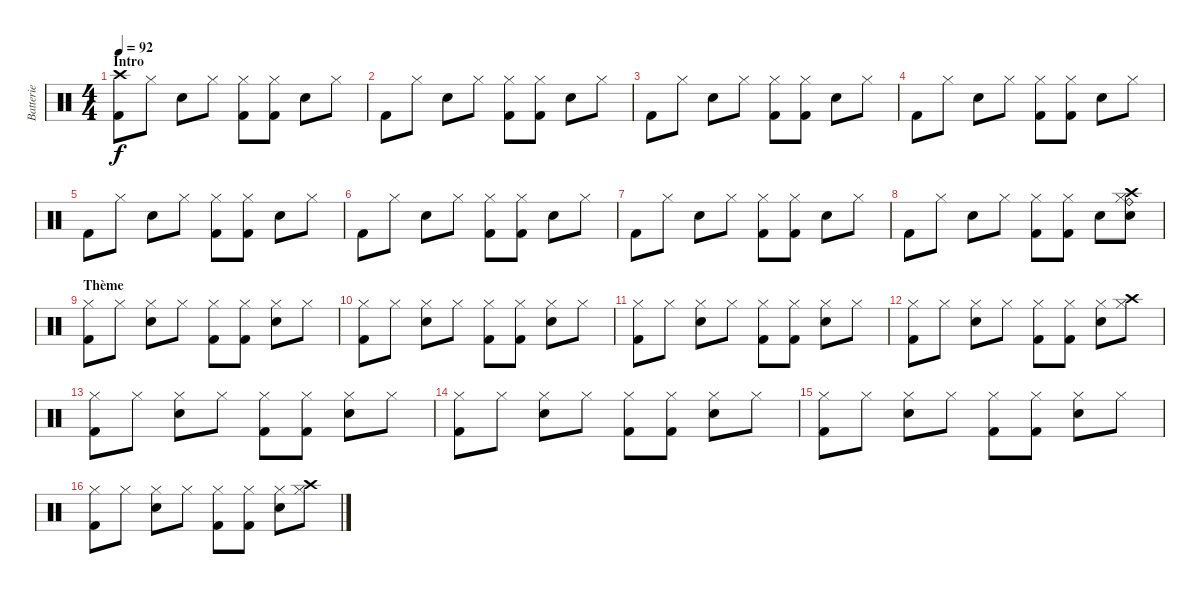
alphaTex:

\track ("Batterie" "Batterie") {instrument percussion}
\staff {score}
\articulation defaults
\ts (4 4)
\section ("" "Intro")
\tempo 92
\clef neutral
\ks c
("Crash high (hit)" "Kick (hit) 2").8{dy f} "Hi-Hat (closed)".8 "Electric Snare (hit)".8 "Hi-Hat (closed)".8 ("Hi-Hat (closed)" "Kick (hit) 2").8 ("Hi-Hat (closed)" "Kick (hit) 2").8 "Electric Snare (hit)".8 "Hi-Hat (closed)".8 |
"Kick (hit) 2".8 "Hi-Hat (closed)".8 "Electric Snare (hit)".8 "Hi-Hat (closed)".8 ("Hi-Hat (closed)" "Kick (hit) 2").8 ("Hi-Hat (closed)" "Kick (hit) 2").8 "Electric Snare (hit)".8 "Hi-Hat (closed)".8 |
"Kick (hit) 2".8 "Hi-Hat (closed)".8 "Electric Snare (hit)".8 "Hi-Hat (closed)".8 ("Hi-Hat (closed)" "Kick (hit) 2").8 ("Hi-Hat (closed)" "Kick (hit) 2").8 "Electric Snare (hit)".8 "Hi-Hat (closed)".8 |
"Kick (hit) 2".8 "Hi-Hat (closed)".8 "Electric Snare (hit)".8 "Hi-Hat (closed)".8 ("Hi-Hat (closed)" "Kick (hit) 2").8 ("Hi-Hat (closed)" "Kick (hit) 2").8 "Electric Snare (hit)".8 "Hi-Hat (closed)".8 |
"Kick (hit) 2".8 "Hi-Hat (closed)".8 "Electric Snare (hit)".8 "Hi-Hat (closed)".8 ("Hi-Hat (closed)" "Kick (hit) 2").8 ("Hi-Hat (closed)" "Kick (hit) 2").8 "Electric Snare (hit)".8 "Hi-Hat (closed)".8 |
"Kick (hit) 2".8 "Hi-Hat (closed)".8 "Electric Snare (hit)".8 "Hi-Hat (closed)".8 ("Hi-Hat (closed)" "Kick (hit) 2").8 ("Hi-Hat (closed)" "Kick (hit) 2").8 "Electric Snare (hit)".8 "Hi-Hat (closed)".8 |
"Kick (hit) 2".8 "Hi-Hat (closed)".8 "Electric Snare (hit)".8 "Hi-Hat (closed)".8 ("Hi-Hat (closed)" "Kick (hit) 2").8 ("Hi-Hat (closed)" "Kick (hit) 2").8 "Electric Snare (hit)".8 "Hi-Hat (closed)".8 |
"Kick (hit) 2".8 "Hi-Hat (closed)".8 "Electric Snare (hit)".8 "Hi-Hat (closed)".8 ("Hi-Hat (closed)" "Kick (hit) 2").8 ("Hi-Hat (closed)" "Kick (hit) 2").8 "Electric Snare (hit)".8 ("Crash high (hit)" "Hi-Hat (closed)" "Ride (bell)" "Electric Snare (hit)").8 |
\section ("" "Thème")
("Hi-Hat (closed)" "Kick (hit) 2").8 "Hi-Hat (closed)".8 ("Hi-Hat (closed)" "Electric Snare (hit)").8 "Hi-Hat (closed)".8 ("Hi-Hat (closed)" "Kick (hit) 2").8 ("Hi-Hat (closed)" "Kick (hit) 2").8 ("Hi-Hat (closed)" "Electric Snare (hit)").8 "Hi-Hat (closed)".8 |
("Hi-Hat (closed)" "Kick (hit) 2").8 "Hi-Hat (closed)".8 ("Hi-Hat (closed)" "Electric Snare (hit)").8 "Hi-Hat (closed)".8 ("Hi-Hat (closed)" "Kick (hit) 2").8 ("Hi-Hat (closed)" "Kick (hit) 2").8 ("Hi-Hat (closed)" "Electric Snare (hit)").8 "Hi-Hat (closed)".8 |
("Hi-Hat (closed)" "Kick (hit) 2").8 "Hi-Hat (closed)".8 ("Hi-Hat (closed)" "Electric Snare (hit)").8 "Hi-Hat (closed)".8 ("Hi-Hat (closed)" "Kick (hit) 2").8 ("Hi-Hat (closed)" "Kick (hit) 2").8 ("Hi-Hat (closed)" "Electric Snare (hit)").8 "Hi-Hat (closed)".8 |
("Hi-Hat (closed)" "Kick (hit) 2").8 "Hi-Hat (closed)".8 ("Hi-Hat (closed)" "Electric Snare (hit)").8 "Hi-Hat (closed)".8 ("Hi-Hat (closed)" "Kick (hit) 2").8 ("Hi-Hat (closed)" "Kick (hit) 2").8 ("Hi-Hat (closed)" "Electric Snare (hit)").8 ("Crash high (hit)" "Hi-Hat (closed)").8 |
("Hi-Hat (closed)" "Kick (hit) 2").8 "Hi-Hat (closed)".8 ("Hi-Hat (closed)" "Electric Snare (hit)").8 "Hi-Hat (closed)".8 ("Hi-Hat (closed)" "Kick (hit) 2").8 ("Hi-Hat (closed)" "Kick (hit) 2").8 ("Hi-Hat (closed)" "Electric Snare (hit)").8 "Hi-Hat (closed)".8 |
("Hi-Hat (closed)" "Kick (hit) 2").8 "Hi-Hat (closed)".8 ("Hi-Hat (closed)" "Electric Snare (hit)").8 "Hi-Hat (closed)".8 ("Hi-Hat (closed)" "Kick (hit) 2").8 ("Hi-Hat (closed)" "Kick (hit) 2").8 ("Hi-Hat (closed)" "Electric Snare (hit)").8 "Hi-Hat (closed)".8 |
("Hi-Hat (closed)" "Kick (hit) 2").8 "Hi-Hat (closed)".8 ("Hi-Hat (closed)" "Electric Snare (hit)").8 "Hi-Hat (closed)".8 ("Hi-Hat (closed)" "Kick (hit) 2").8 ("Hi-Hat (closed)" "Kick (hit) 2").8 ("Hi-Hat (closed)" "Electric Snare (hit)").8 "Hi-Hat (closed)".8 |
("Hi-Hat (closed)" "Kick (hit) 2").8 "Hi-Hat (closed)".8 ("Hi-Hat (closed)" "Electric Snare (hit)").8 "Hi-Hat (closed)".8 ("Hi-Hat (closed)" "Kick (hit) 2").8 ("Hi-Hat (closed)" "Kick (hit) 2").8 ("Hi-Hat (closed)" "Electric Snare (hit)").8 ("Crash high (hit)" "Hi-Hat (closed)").8
